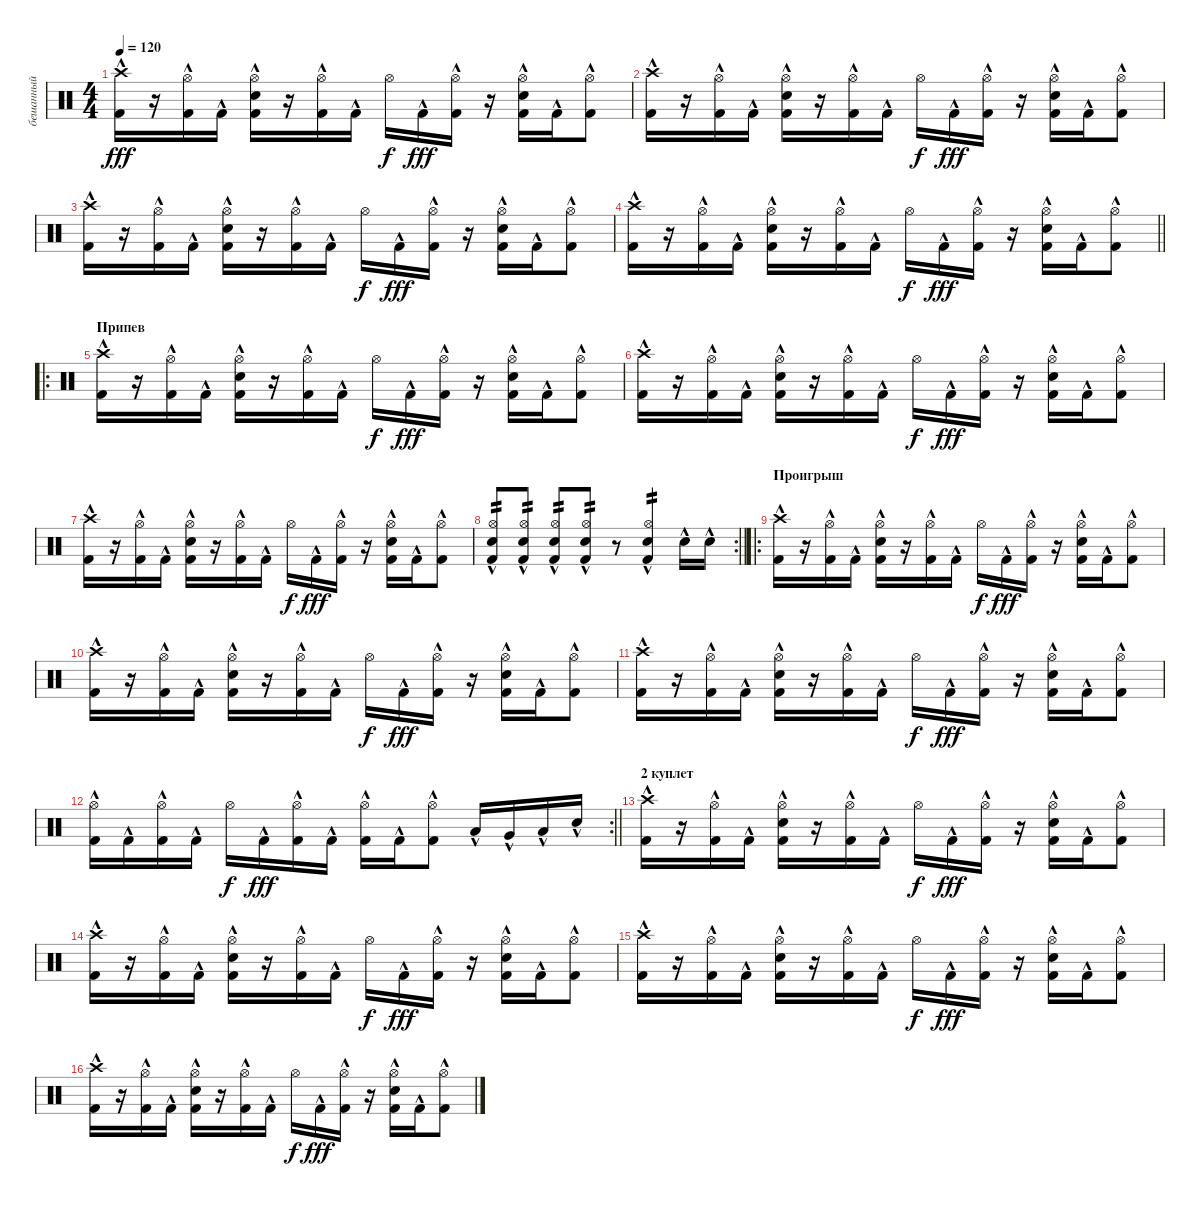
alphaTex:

\track ("бешанный" "бешанный") {instrument percussion}
\staff {score}
\articulation defaults
\ts (4 4)
\tempo 120
\clef neutral
\ks c
("Kick (hit) 2"{hac} "Crash high (hit)"{hac}).16{dy fff} r.16 ("Kick (hit) 2"{hac} "Hi-Hat (open)").16 "Kick (hit) 2"{hac}.16 ("Kick (hit) 2"{hac} "Snare (hit) 2"{hac} "Hi-Hat (open)").16 r.16 ("Kick (hit) 2"{hac} "Hi-Hat (open)").16 "Kick (hit) 2"{hac}.16 "Hi-Hat (open)".16{dy f} "Kick (hit) 2"{hac}.16{dy fff} ("Kick (hit) 2"{hac} "Hi-Hat (open)").16 r.16 ("Kick (hit) 2"{hac} "Snare (hit) 2"{hac} "Hi-Hat (open)").16 "Kick (hit) 2"{hac}.16 ("Kick (hit) 2"{hac} "Hi-Hat (open)").8 |
("Kick (hit) 2"{hac} "Crash high (hit)"{hac}).16 r.16 ("Kick (hit) 2"{hac} "Hi-Hat (open)").16 "Kick (hit) 2"{hac}.16 ("Kick (hit) 2"{hac} "Snare (hit) 2"{hac} "Hi-Hat (open)").16 r.16 ("Kick (hit) 2"{hac} "Hi-Hat (open)").16 "Kick (hit) 2"{hac}.16 "Hi-Hat (open)".16{dy f} "Kick (hit) 2"{hac}.16{dy fff} ("Kick (hit) 2"{hac} "Hi-Hat (open)").16 r.16 ("Kick (hit) 2"{hac} "Snare (hit) 2"{hac} "Hi-Hat (open)").16 "Kick (hit) 2"{hac}.16 ("Kick (hit) 2"{hac} "Hi-Hat (open)").8 |
("Kick (hit) 2"{hac} "Crash high (hit)"{hac}).16 r.16 ("Kick (hit) 2"{hac} "Hi-Hat (open)").16 "Kick (hit) 2"{hac}.16 ("Kick (hit) 2"{hac} "Snare (hit) 2"{hac} "Hi-Hat (open)").16 r.16 ("Kick (hit) 2"{hac} "Hi-Hat (open)").16 "Kick (hit) 2"{hac}.16 "Hi-Hat (open)".16{dy f} "Kick (hit) 2"{hac}.16{dy fff} ("Kick (hit) 2"{hac} "Hi-Hat (open)").16 r.16 ("Kick (hit) 2"{hac} "Snare (hit) 2"{hac} "Hi-Hat (open)").16 "Kick (hit) 2"{hac}.16 ("Kick (hit) 2"{hac} "Hi-Hat (open)").8 |
\barLineRight lightlight
("Kick (hit) 2"{hac} "Crash high (hit)"{hac}).16 r.16 ("Kick (hit) 2"{hac} "Hi-Hat (open)").16 "Kick (hit) 2"{hac}.16 ("Kick (hit) 2"{hac} "Snare (hit) 2"{hac} "Hi-Hat (open)").16 r.16 ("Kick (hit) 2"{hac} "Hi-Hat (open)").16 "Kick (hit) 2"{hac}.16 "Hi-Hat (open)".16{dy f} "Kick (hit) 2"{hac}.16{dy fff} ("Kick (hit) 2"{hac} "Hi-Hat (open)").16 r.16 ("Kick (hit) 2"{hac} "Snare (hit) 2"{hac} "Hi-Hat (open)").16 "Kick (hit) 2"{hac}.16 ("Kick (hit) 2"{hac} "Hi-Hat (open)").8 |
\ro
\section ("" "Припев")
("Kick (hit) 2"{hac} "Crash high (hit)"{hac}).16 r.16 ("Kick (hit) 2"{hac} "Hi-Hat (open)").16 "Kick (hit) 2"{hac}.16 ("Kick (hit) 2"{hac} "Snare (hit) 2"{hac} "Hi-Hat (open)").16 r.16 ("Kick (hit) 2"{hac} "Hi-Hat (open)").16 "Kick (hit) 2"{hac}.16 "Hi-Hat (open)".16{dy f} "Kick (hit) 2"{hac}.16{dy fff} ("Kick (hit) 2"{hac} "Hi-Hat (open)").16 r.16 ("Kick (hit) 2"{hac} "Snare (hit) 2"{hac} "Hi-Hat (open)").16 "Kick (hit) 2"{hac}.16 ("Kick (hit) 2"{hac} "Hi-Hat (open)").8 |
("Kick (hit) 2"{hac} "Crash high (hit)"{hac}).16 r.16 ("Kick (hit) 2"{hac} "Hi-Hat (open)").16 "Kick (hit) 2"{hac}.16 ("Kick (hit) 2"{hac} "Snare (hit) 2"{hac} "Hi-Hat (open)").16 r.16 ("Kick (hit) 2"{hac} "Hi-Hat (open)").16 "Kick (hit) 2"{hac}.16 "Hi-Hat (open)".16{dy f} "Kick (hit) 2"{hac}.16{dy fff} ("Kick (hit) 2"{hac} "Hi-Hat (open)").16 r.16 ("Kick (hit) 2"{hac} "Snare (hit) 2"{hac} "Hi-Hat (open)").16 "Kick (hit) 2"{hac}.16 ("Kick (hit) 2"{hac} "Hi-Hat (open)").8 |
("Kick (hit) 2"{hac} "Crash high (hit)"{hac}).16 r.16 ("Kick (hit) 2"{hac} "Hi-Hat (open)").16 "Kick (hit) 2"{hac}.16 ("Kick (hit) 2"{hac} "Snare (hit) 2"{hac} "Hi-Hat (open)").16 r.16 ("Kick (hit) 2"{hac} "Hi-Hat (open)").16 "Kick (hit) 2"{hac}.16 "Hi-Hat (open)".16{dy f} "Kick (hit) 2"{hac}.16{dy fff} ("Kick (hit) 2"{hac} "Hi-Hat (open)").16 r.16 ("Kick (hit) 2"{hac} "Snare (hit) 2"{hac} "Hi-Hat (open)").16 "Kick (hit) 2"{hac}.16 ("Kick (hit) 2"{hac} "Hi-Hat (open)").8 |
\rc 2
\barLineRight lightlight
("Kick (hit) 2"{hac} "Snare (hit) 2"{hac} "Hi-Hat (open)").8{tp 2} ("Kick (hit) 2"{hac} "Snare (hit) 2"{hac} "Hi-Hat (open)").8{tp 2} ("Kick (hit) 2"{hac} "Snare (hit) 2"{hac} "Hi-Hat (open)").8{tp 2} ("Kick (hit) 2"{hac} "Snare (hit) 2"{hac} "Hi-Hat (open)").8{tp 2} r.8 ("Kick (hit) 2"{hac} "Snare (hit) 2"{hac} "Hi-Hat (open)").4{tp 2} "Snare (hit) 2"{hac}.16 "Snare (hit) 2"{hac}.16 |
\ro
\section ("" "Проигрыш")
("Kick (hit) 2"{hac} "Crash high (hit)"{hac}).16 r.16 ("Kick (hit) 2"{hac} "Hi-Hat (open)").16 "Kick (hit) 2"{hac}.16 ("Kick (hit) 2"{hac} "Snare (hit) 2"{hac} "Hi-Hat (open)").16 r.16 ("Kick (hit) 2"{hac} "Hi-Hat (open)").16 "Kick (hit) 2"{hac}.16 "Hi-Hat (open)".16{dy f} "Kick (hit) 2"{hac}.16{dy fff} ("Kick (hit) 2"{hac} "Hi-Hat (open)").16 r.16 ("Kick (hit) 2"{hac} "Snare (hit) 2"{hac} "Hi-Hat (open)").16 "Kick (hit) 2"{hac}.16 ("Kick (hit) 2"{hac} "Hi-Hat (open)").8 |
("Kick (hit) 2"{hac} "Crash high (hit)"{hac}).16 r.16 ("Kick (hit) 2"{hac} "Hi-Hat (open)").16 "Kick (hit) 2"{hac}.16 ("Kick (hit) 2"{hac} "Snare (hit) 2"{hac} "Hi-Hat (open)").16 r.16 ("Kick (hit) 2"{hac} "Hi-Hat (open)").16 "Kick (hit) 2"{hac}.16 "Hi-Hat (open)".16{dy f} "Kick (hit) 2"{hac}.16{dy fff} ("Kick (hit) 2"{hac} "Hi-Hat (open)").16 r.16 ("Kick (hit) 2"{hac} "Snare (hit) 2"{hac} "Hi-Hat (open)").16 "Kick (hit) 2"{hac}.16 ("Kick (hit) 2"{hac} "Hi-Hat (open)").8 |
("Kick (hit) 2"{hac} "Crash high (hit)"{hac}).16 r.16 ("Kick (hit) 2"{hac} "Hi-Hat (open)").16 "Kick (hit) 2"{hac}.16 ("Kick (hit) 2"{hac} "Snare (hit) 2"{hac} "Hi-Hat (open)").16 r.16 ("Kick (hit) 2"{hac} "Hi-Hat (open)").16 "Kick (hit) 2"{hac}.16 "Hi-Hat (open)".16{dy f} "Kick (hit) 2"{hac}.16{dy fff} ("Kick (hit) 2"{hac} "Hi-Hat (open)").16 r.16 ("Kick (hit) 2"{hac} "Snare (hit) 2"{hac} "Hi-Hat (open)").16 "Kick (hit) 2"{hac}.16 ("Kick (hit) 2"{hac} "Hi-Hat (open)").8 |
\rc 2
\barLineRight lightlight
("Kick (hit) 2"{hac} "Hi-Hat (open)").16 "Kick (hit) 2"{hac}.16 ("Kick (hit) 2"{hac} "Hi-Hat (open)").16 "Kick (hit) 2"{hac}.16 "Hi-Hat (open)".16{dy f} "Kick (hit) 2"{hac}.16{dy fff} ("Kick (hit) 2"{hac} "Hi-Hat (open)").16 "Kick (hit) 2"{hac}.16 ("Kick (hit) 2"{hac} "Hi-Hat (open)").16 "Kick (hit) 2"{hac}.16 ("Kick (hit) 2"{hac} "Hi-Hat (open)").8 "Low Tom (hit)"{hac}.16 "Very Low Tom (hit)"{hac}.16 "Low Floor Tom (hit)"{hac}.16 "Snare (hit) 2"{hac}.16 |
\section ("" "2 куплет")
("Kick (hit) 2"{hac} "Crash high (hit)"{hac}).16 r.16 ("Kick (hit) 2"{hac} "Hi-Hat (open)").16 "Kick (hit) 2"{hac}.16 ("Kick (hit) 2"{hac} "Snare (hit) 2"{hac} "Hi-Hat (open)").16 r.16 ("Kick (hit) 2"{hac} "Hi-Hat (open)").16 "Kick (hit) 2"{hac}.16 "Hi-Hat (open)".16{dy f} "Kick (hit) 2"{hac}.16{dy fff} ("Kick (hit) 2"{hac} "Hi-Hat (open)").16 r.16 ("Kick (hit) 2"{hac} "Snare (hit) 2"{hac} "Hi-Hat (open)").16 "Kick (hit) 2"{hac}.16 ("Kick (hit) 2"{hac} "Hi-Hat (open)").8 |
("Kick (hit) 2"{hac} "Crash high (hit)"{hac}).16 r.16 ("Kick (hit) 2"{hac} "Hi-Hat (open)").16 "Kick (hit) 2"{hac}.16 ("Kick (hit) 2"{hac} "Snare (hit) 2"{hac} "Hi-Hat (open)").16 r.16 ("Kick (hit) 2"{hac} "Hi-Hat (open)").16 "Kick (hit) 2"{hac}.16 "Hi-Hat (open)".16{dy f} "Kick (hit) 2"{hac}.16{dy fff} ("Kick (hit) 2"{hac} "Hi-Hat (open)").16 r.16 ("Kick (hit) 2"{hac} "Snare (hit) 2"{hac} "Hi-Hat (open)").16 "Kick (hit) 2"{hac}.16 ("Kick (hit) 2"{hac} "Hi-Hat (open)").8 |
("Kick (hit) 2"{hac} "Crash high (hit)"{hac}).16 r.16 ("Kick (hit) 2"{hac} "Hi-Hat (open)").16 "Kick (hit) 2"{hac}.16 ("Kick (hit) 2"{hac} "Snare (hit) 2"{hac} "Hi-Hat (open)").16 r.16 ("Kick (hit) 2"{hac} "Hi-Hat (open)").16 "Kick (hit) 2"{hac}.16 "Hi-Hat (open)".16{dy f} "Kick (hit) 2"{hac}.16{dy fff} ("Kick (hit) 2"{hac} "Hi-Hat (open)").16 r.16 ("Kick (hit) 2"{hac} "Snare (hit) 2"{hac} "Hi-Hat (open)").16 "Kick (hit) 2"{hac}.16 ("Kick (hit) 2"{hac} "Hi-Hat (open)").8 |
("Kick (hit) 2"{hac} "Crash high (hit)"{hac}).16 r.16 ("Kick (hit) 2"{hac} "Hi-Hat (open)").16 "Kick (hit) 2"{hac}.16 ("Kick (hit) 2"{hac} "Snare (hit) 2"{hac} "Hi-Hat (open)").16 r.16 ("Kick (hit) 2"{hac} "Hi-Hat (open)").16 "Kick (hit) 2"{hac}.16 "Hi-Hat (open)".16{dy f} "Kick (hit) 2"{hac}.16{dy fff} ("Kick (hit) 2"{hac} "Hi-Hat (open)").16 r.16 ("Kick (hit) 2"{hac} "Snare (hit) 2"{hac} "Hi-Hat (open)").16 "Kick (hit) 2"{hac}.16 ("Kick (hit) 2"{hac} "Hi-Hat (open)").8
